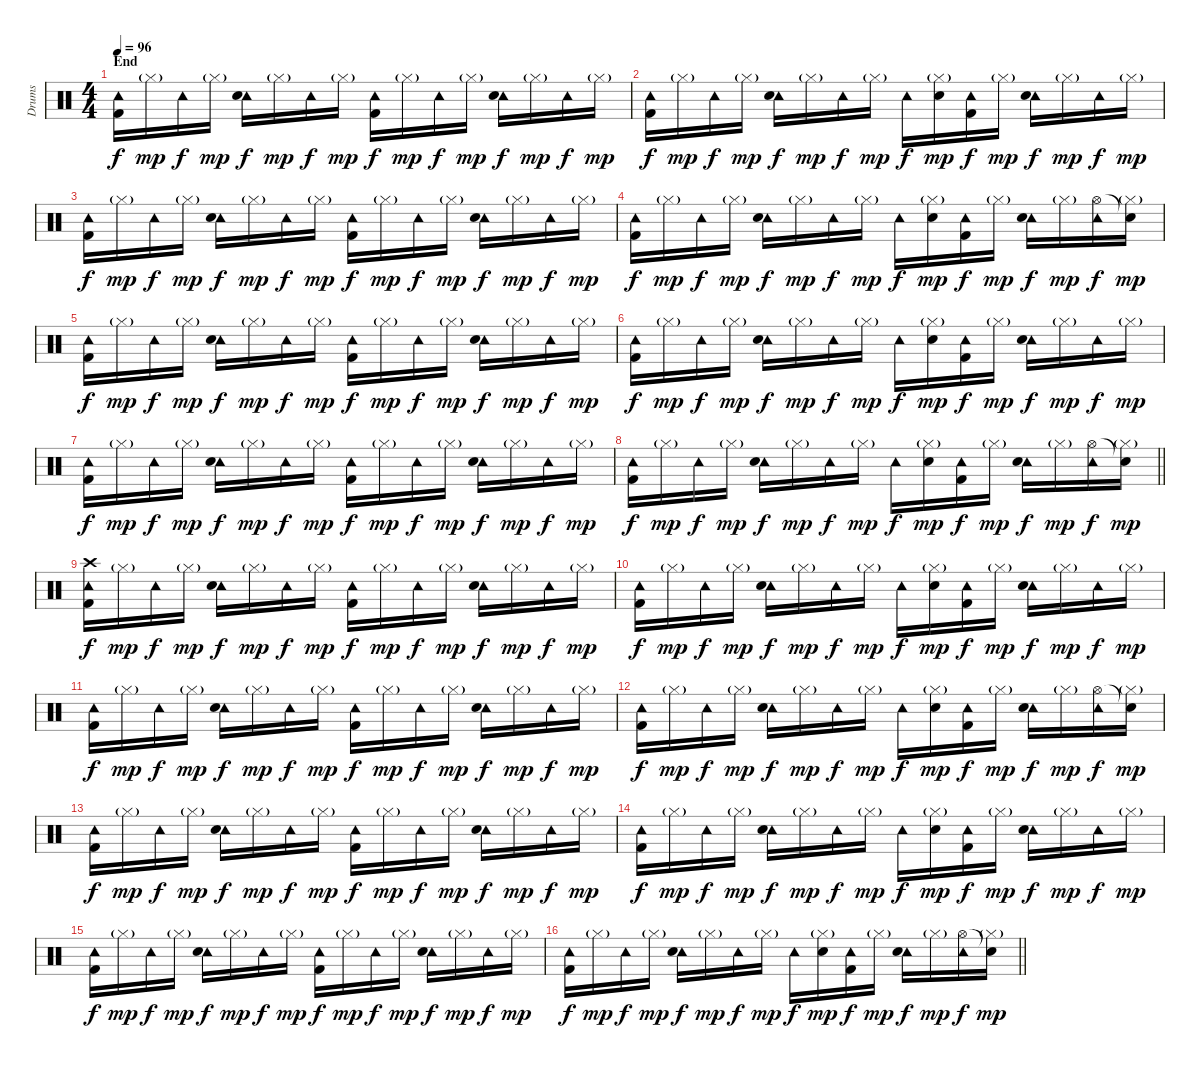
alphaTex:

\track ("Drums" "Drums") {instrument percussion}
\staff {score}
\articulation defaults
\ts (4 4)
\section ("" "End")
\tempo 96
\clef neutral
\ks c
("Tambourine (hit)" "Kick (hit) 2").16{dy f} "Hi-Hat (closed)"{g}.16{dy mp} "Tambourine (hit)".16{dy f} "Hi-Hat (closed)"{g}.16{dy mp} ("Tambourine (hit)" "Snare (hit) 2").16{dy f} "Hi-Hat (closed)"{g}.16{dy mp} "Tambourine (hit)".16{dy f} "Hi-Hat (closed)"{g}.16{dy mp} ("Tambourine (hit)" "Kick (hit) 2").16{dy f} "Hi-Hat (closed)"{g}.16{dy mp} "Tambourine (hit)".16{dy f} "Hi-Hat (closed)"{g}.16{dy mp} ("Tambourine (hit)" "Snare (hit) 2").16{dy f} "Hi-Hat (closed)"{g}.16{dy mp} "Tambourine (hit)".16{dy f} "Hi-Hat (closed)"{g}.16{dy mp} |
("Tambourine (hit)" "Kick (hit) 2").16{dy f} "Hi-Hat (closed)"{g}.16{dy mp} "Tambourine (hit)".16{dy f} "Hi-Hat (closed)"{g}.16{dy mp} ("Tambourine (hit)" "Snare (hit) 2").16{dy f} "Hi-Hat (closed)"{g}.16{dy mp} "Tambourine (hit)".16{dy f} "Hi-Hat (closed)"{g}.16{dy mp} "Tambourine (hit)".16{dy f} ("Hi-Hat (closed)"{g} "Snare (hit) 2").16{dy mp} ("Tambourine (hit)" "Kick (hit) 2").16{dy f} "Hi-Hat (closed)"{g}.16{dy mp} ("Tambourine (hit)" "Snare (hit) 2").16{dy f} "Hi-Hat (closed)"{g}.16{dy mp} "Tambourine (hit)".16{dy f} "Hi-Hat (closed)"{g}.16{dy mp} |
("Tambourine (hit)" "Kick (hit) 2").16{dy f} "Hi-Hat (closed)"{g}.16{dy mp} "Tambourine (hit)".16{dy f} "Hi-Hat (closed)"{g}.16{dy mp} ("Tambourine (hit)" "Snare (hit) 2").16{dy f} "Hi-Hat (closed)"{g}.16{dy mp} "Tambourine (hit)".16{dy f} "Hi-Hat (closed)"{g}.16{dy mp} ("Tambourine (hit)" "Kick (hit) 2").16{dy f} "Hi-Hat (closed)"{g}.16{dy mp} "Tambourine (hit)".16{dy f} "Hi-Hat (closed)"{g}.16{dy mp} ("Tambourine (hit)" "Snare (hit) 2").16{dy f} "Hi-Hat (closed)"{g}.16{dy mp} "Tambourine (hit)".16{dy f} "Hi-Hat (closed)"{g}.16{dy mp} |
("Tambourine (hit)" "Kick (hit) 2").16{dy f} "Hi-Hat (closed)"{g}.16{dy mp} "Tambourine (hit)".16{dy f} "Hi-Hat (closed)"{g}.16{dy mp} ("Tambourine (hit)" "Snare (hit) 2").16{dy f} "Hi-Hat (closed)"{g}.16{dy mp} "Tambourine (hit)".16{dy f} "Hi-Hat (closed)"{g}.16{dy mp} "Tambourine (hit)".16{dy f} ("Hi-Hat (closed)"{g} "Snare (hit) 2").16{dy mp} ("Tambourine (hit)" "Kick (hit) 2").16{dy f} "Hi-Hat (closed)"{g}.16{dy mp} ("Tambourine (hit)" "Snare (hit) 2").16{dy f} "Hi-Hat (closed)"{g}.16{dy mp} ("Tambourine (hit)" "Hi-Hat (open)").16{dy f} ("Hi-Hat (closed)"{g} "Snare (hit)"{t}).16{dy mp} |
("Tambourine (hit)" "Kick (hit) 2").16{dy f} "Hi-Hat (closed)"{g}.16{dy mp} "Tambourine (hit)".16{dy f} "Hi-Hat (closed)"{g}.16{dy mp} ("Tambourine (hit)" "Snare (hit) 2").16{dy f} "Hi-Hat (closed)"{g}.16{dy mp} "Tambourine (hit)".16{dy f} "Hi-Hat (closed)"{g}.16{dy mp} ("Tambourine (hit)" "Kick (hit) 2").16{dy f} "Hi-Hat (closed)"{g}.16{dy mp} "Tambourine (hit)".16{dy f} "Hi-Hat (closed)"{g}.16{dy mp} ("Tambourine (hit)" "Snare (hit) 2").16{dy f} "Hi-Hat (closed)"{g}.16{dy mp} "Tambourine (hit)".16{dy f} "Hi-Hat (closed)"{g}.16{dy mp} |
("Tambourine (hit)" "Kick (hit) 2").16{dy f} "Hi-Hat (closed)"{g}.16{dy mp} "Tambourine (hit)".16{dy f} "Hi-Hat (closed)"{g}.16{dy mp} ("Tambourine (hit)" "Snare (hit) 2").16{dy f} "Hi-Hat (closed)"{g}.16{dy mp} "Tambourine (hit)".16{dy f} "Hi-Hat (closed)"{g}.16{dy mp} "Tambourine (hit)".16{dy f} ("Hi-Hat (closed)"{g} "Snare (hit) 2").16{dy mp} ("Tambourine (hit)" "Kick (hit) 2").16{dy f} "Hi-Hat (closed)"{g}.16{dy mp} ("Tambourine (hit)" "Snare (hit) 2").16{dy f} "Hi-Hat (closed)"{g}.16{dy mp} "Tambourine (hit)".16{dy f} "Hi-Hat (closed)"{g}.16{dy mp} |
("Tambourine (hit)" "Kick (hit) 2").16{dy f} "Hi-Hat (closed)"{g}.16{dy mp} "Tambourine (hit)".16{dy f} "Hi-Hat (closed)"{g}.16{dy mp} ("Tambourine (hit)" "Snare (hit) 2").16{dy f} "Hi-Hat (closed)"{g}.16{dy mp} "Tambourine (hit)".16{dy f} "Hi-Hat (closed)"{g}.16{dy mp} ("Tambourine (hit)" "Kick (hit) 2").16{dy f} "Hi-Hat (closed)"{g}.16{dy mp} "Tambourine (hit)".16{dy f} "Hi-Hat (closed)"{g}.16{dy mp} ("Tambourine (hit)" "Snare (hit) 2").16{dy f} "Hi-Hat (closed)"{g}.16{dy mp} "Tambourine (hit)".16{dy f} "Hi-Hat (closed)"{g}.16{dy mp} |
\barLineRight lightlight
("Tambourine (hit)" "Kick (hit) 2").16{dy f} "Hi-Hat (closed)"{g}.16{dy mp} "Tambourine (hit)".16{dy f} "Hi-Hat (closed)"{g}.16{dy mp} ("Tambourine (hit)" "Snare (hit) 2").16{dy f} "Hi-Hat (closed)"{g}.16{dy mp} "Tambourine (hit)".16{dy f} "Hi-Hat (closed)"{g}.16{dy mp} "Tambourine (hit)".16{dy f} ("Hi-Hat (closed)"{g} "Snare (hit) 2").16{dy mp} ("Tambourine (hit)" "Kick (hit) 2").16{dy f} "Hi-Hat (closed)"{g}.16{dy mp} ("Tambourine (hit)" "Snare (hit) 2").16{dy f} "Hi-Hat (closed)"{g}.16{dy mp} ("Tambourine (hit)" "Hi-Hat (open)").16{dy f} ("Hi-Hat (closed)"{g} "Snare (hit)"{t}).16{dy mp} |
("Tambourine (hit)" "Crash high (hit)" "Kick (hit) 2").16{dy f} "Hi-Hat (closed)"{g}.16{dy mp} "Tambourine (hit)".16{dy f} "Hi-Hat (closed)"{g}.16{dy mp} ("Tambourine (hit)" "Snare (hit) 2").16{dy f} "Hi-Hat (closed)"{g}.16{dy mp} "Tambourine (hit)".16{dy f} "Hi-Hat (closed)"{g}.16{dy mp} ("Tambourine (hit)" "Kick (hit) 2").16{dy f} "Hi-Hat (closed)"{g}.16{dy mp} "Tambourine (hit)".16{dy f} "Hi-Hat (closed)"{g}.16{dy mp} ("Tambourine (hit)" "Snare (hit) 2").16{dy f} "Hi-Hat (closed)"{g}.16{dy mp} "Tambourine (hit)".16{dy f} "Hi-Hat (closed)"{g}.16{dy mp} |
("Tambourine (hit)" "Kick (hit) 2").16{dy f} "Hi-Hat (closed)"{g}.16{dy mp} "Tambourine (hit)".16{dy f} "Hi-Hat (closed)"{g}.16{dy mp} ("Tambourine (hit)" "Snare (hit) 2").16{dy f} "Hi-Hat (closed)"{g}.16{dy mp} "Tambourine (hit)".16{dy f} "Hi-Hat (closed)"{g}.16{dy mp} "Tambourine (hit)".16{dy f} ("Hi-Hat (closed)"{g} "Snare (hit) 2").16{dy mp} ("Tambourine (hit)" "Kick (hit) 2").16{dy f} "Hi-Hat (closed)"{g}.16{dy mp} ("Tambourine (hit)" "Snare (hit) 2").16{dy f} "Hi-Hat (closed)"{g}.16{dy mp} "Tambourine (hit)".16{dy f} "Hi-Hat (closed)"{g}.16{dy mp} |
("Tambourine (hit)" "Kick (hit) 2").16{dy f} "Hi-Hat (closed)"{g}.16{dy mp} "Tambourine (hit)".16{dy f} "Hi-Hat (closed)"{g}.16{dy mp} ("Tambourine (hit)" "Snare (hit) 2").16{dy f} "Hi-Hat (closed)"{g}.16{dy mp} "Tambourine (hit)".16{dy f} "Hi-Hat (closed)"{g}.16{dy mp} ("Tambourine (hit)" "Kick (hit) 2").16{dy f} "Hi-Hat (closed)"{g}.16{dy mp} "Tambourine (hit)".16{dy f} "Hi-Hat (closed)"{g}.16{dy mp} ("Tambourine (hit)" "Snare (hit) 2").16{dy f} "Hi-Hat (closed)"{g}.16{dy mp} "Tambourine (hit)".16{dy f} "Hi-Hat (closed)"{g}.16{dy mp} |
("Tambourine (hit)" "Kick (hit) 2").16{dy f} "Hi-Hat (closed)"{g}.16{dy mp} "Tambourine (hit)".16{dy f} "Hi-Hat (closed)"{g}.16{dy mp} ("Tambourine (hit)" "Snare (hit) 2").16{dy f} "Hi-Hat (closed)"{g}.16{dy mp} "Tambourine (hit)".16{dy f} "Hi-Hat (closed)"{g}.16{dy mp} "Tambourine (hit)".16{dy f} ("Hi-Hat (closed)"{g} "Snare (hit) 2").16{dy mp} ("Tambourine (hit)" "Kick (hit) 2").16{dy f} "Hi-Hat (closed)"{g}.16{dy mp} ("Tambourine (hit)" "Snare (hit) 2").16{dy f} "Hi-Hat (closed)"{g}.16{dy mp} ("Tambourine (hit)" "Hi-Hat (open)").16{dy f} ("Hi-Hat (closed)"{g} "Snare (hit)"{t}).16{dy mp} |
("Tambourine (hit)" "Kick (hit) 2").16{dy f} "Hi-Hat (closed)"{g}.16{dy mp} "Tambourine (hit)".16{dy f} "Hi-Hat (closed)"{g}.16{dy mp} ("Tambourine (hit)" "Snare (hit) 2").16{dy f} "Hi-Hat (closed)"{g}.16{dy mp} "Tambourine (hit)".16{dy f} "Hi-Hat (closed)"{g}.16{dy mp} ("Tambourine (hit)" "Kick (hit) 2").16{dy f} "Hi-Hat (closed)"{g}.16{dy mp} "Tambourine (hit)".16{dy f} "Hi-Hat (closed)"{g}.16{dy mp} ("Tambourine (hit)" "Snare (hit) 2").16{dy f} "Hi-Hat (closed)"{g}.16{dy mp} "Tambourine (hit)".16{dy f} "Hi-Hat (closed)"{g}.16{dy mp} |
("Tambourine (hit)" "Kick (hit) 2").16{dy f} "Hi-Hat (closed)"{g}.16{dy mp} "Tambourine (hit)".16{dy f} "Hi-Hat (closed)"{g}.16{dy mp} ("Tambourine (hit)" "Snare (hit) 2").16{dy f} "Hi-Hat (closed)"{g}.16{dy mp} "Tambourine (hit)".16{dy f} "Hi-Hat (closed)"{g}.16{dy mp} "Tambourine (hit)".16{dy f} ("Hi-Hat (closed)"{g} "Snare (hit) 2").16{dy mp} ("Tambourine (hit)" "Kick (hit) 2").16{dy f} "Hi-Hat (closed)"{g}.16{dy mp} ("Tambourine (hit)" "Snare (hit) 2").16{dy f} "Hi-Hat (closed)"{g}.16{dy mp} "Tambourine (hit)".16{dy f} "Hi-Hat (closed)"{g}.16{dy mp} |
("Tambourine (hit)" "Kick (hit) 2").16{dy f} "Hi-Hat (closed)"{g}.16{dy mp} "Tambourine (hit)".16{dy f} "Hi-Hat (closed)"{g}.16{dy mp} ("Tambourine (hit)" "Snare (hit) 2").16{dy f} "Hi-Hat (closed)"{g}.16{dy mp} "Tambourine (hit)".16{dy f} "Hi-Hat (closed)"{g}.16{dy mp} ("Tambourine (hit)" "Kick (hit) 2").16{dy f} "Hi-Hat (closed)"{g}.16{dy mp} "Tambourine (hit)".16{dy f} "Hi-Hat (closed)"{g}.16{dy mp} ("Tambourine (hit)" "Snare (hit) 2").16{dy f} "Hi-Hat (closed)"{g}.16{dy mp} "Tambourine (hit)".16{dy f} "Hi-Hat (closed)"{g}.16{dy mp} |
\barLineRight lightlight
("Tambourine (hit)" "Kick (hit) 2").16{dy f} "Hi-Hat (closed)"{g}.16{dy mp} "Tambourine (hit)".16{dy f} "Hi-Hat (closed)"{g}.16{dy mp} ("Tambourine (hit)" "Snare (hit) 2").16{dy f} "Hi-Hat (closed)"{g}.16{dy mp} "Tambourine (hit)".16{dy f} "Hi-Hat (closed)"{g}.16{dy mp} "Tambourine (hit)".16{dy f} ("Hi-Hat (closed)"{g} "Snare (hit) 2").16{dy mp} ("Tambourine (hit)" "Kick (hit) 2").16{dy f} "Hi-Hat (closed)"{g}.16{dy mp} ("Tambourine (hit)" "Snare (hit) 2").16{dy f} "Hi-Hat (closed)"{g}.16{dy mp} ("Tambourine (hit)" "Hi-Hat (open)").16{dy f} ("Hi-Hat (closed)"{g} "Snare (hit)"{t}).16{dy mp}
